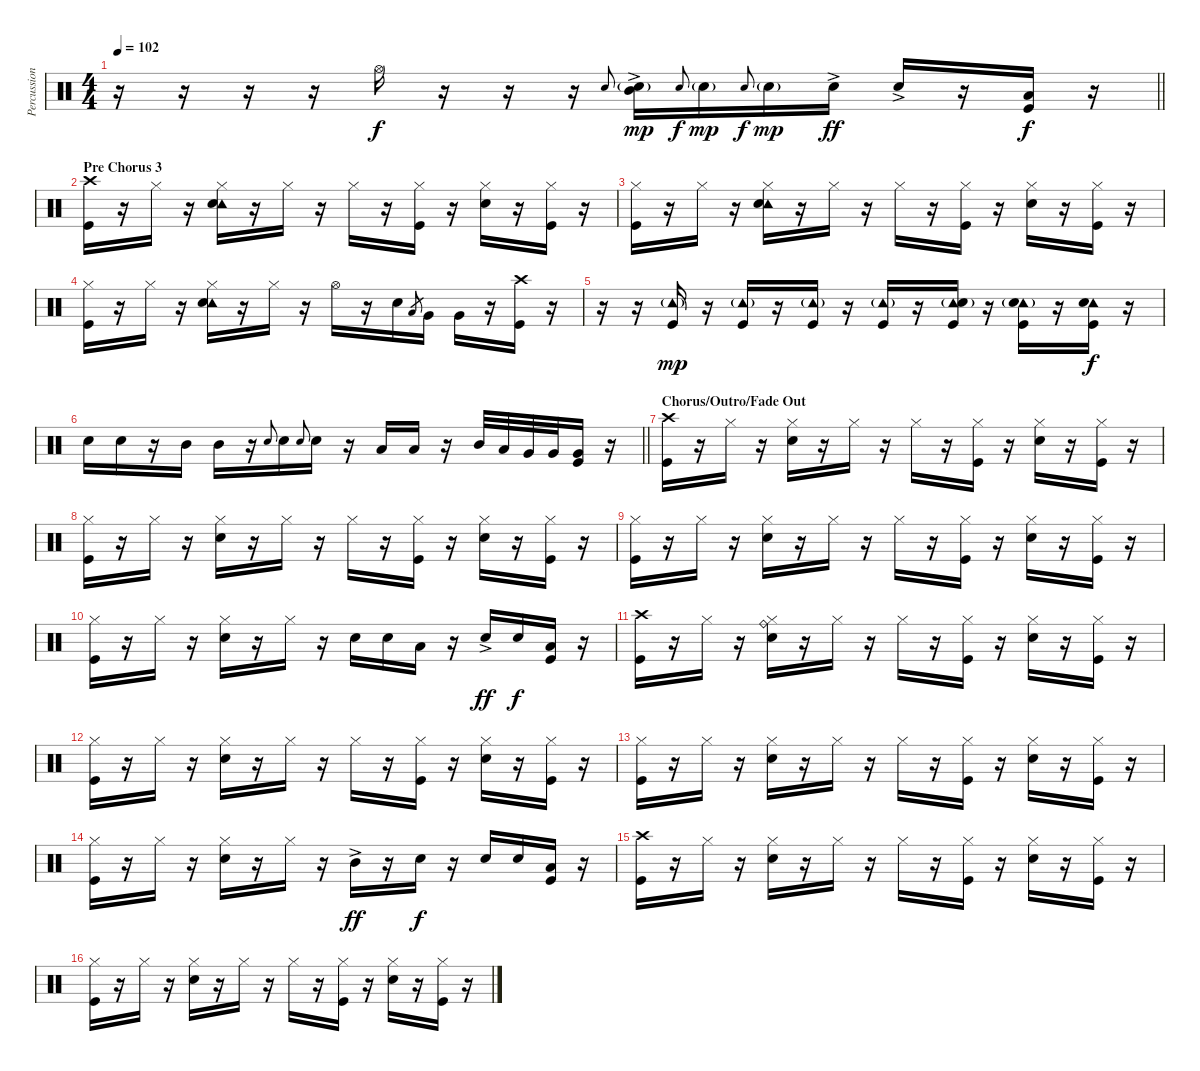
\track ("Percussion" "Percussion") {instrument percussion}
\staff {score}
\articulation defaults
\ts (4 4)
\tempo 102
\clef neutral
\barLineRight lightlight
\ks c
r.16{dy mp} r.16 r.16 r.16 "Hi-Hat (open)".16{dy f} r.16 r.16 r.16 "Snare (hit) 2".8{gr onbeat} ("Mid Tom (hit)"{ac} "Snare (hit) 2"{g}).16{dy mp} "Snare (hit) 2".8{gr onbeat dy f} "Snare (hit) 2"{g}.16{dy mp} "Snare (hit) 2".8{gr onbeat dy f} "Snare (hit) 2"{g}.16{dy mp} "Snare (hit) 2"{ac}.16{dy ff} "Snare (hit) 2"{ac}.16 r.16 ("Low Tom (hit)" "Kick (hit)").16{dy f} r.16 |
\section ("" "Pre Chorus 3")
("Crash high (hit)" "Kick (hit)").16 r.16 "Hi-Hat (closed)".16 r.16 ("Tambourine (hit)" "Hi-Hat (closed)" "Snare (hit) 2").16 r.16 "Hi-Hat (closed)".16 r.16 "Hi-Hat (closed)".16 r.16 ("Hi-Hat (closed)" "Kick (hit)").16 r.16 ("Hi-Hat (closed)" "Snare (hit) 2").16 r.16 ("Hi-Hat (closed)" "Kick (hit)").16 r.16 |
("Hi-Hat (closed)" "Kick (hit)").16 r.16 "Hi-Hat (closed)".16 r.16 ("Tambourine (hit)" "Hi-Hat (closed)" "Snare (hit) 2").16 r.16 "Hi-Hat (closed)".16 r.16 "Hi-Hat (closed)".16 r.16 ("Hi-Hat (closed)" "Kick (hit)").16 r.16 ("Hi-Hat (closed)" "Snare (hit) 2").16 r.16 ("Hi-Hat (closed)" "Kick (hit)").16 r.16 |
("Hi-Hat (closed)" "Kick (hit)").16 r.16 "Hi-Hat (closed)".16 r.16 ("Tambourine (hit)" "Hi-Hat (closed)" "Snare (hit) 2").16 r.16 "Hi-Hat (closed)".16 r.16 "Hi-Hat (open)".16 r.16 "Snare (hit) 2".16 "Low Tom (hit)".8{gr} "Very Low Tom (hit)".16 "Very Low Tom (hit)".16 r.16 ("Crash high (hit)" "Kick (hit)").16 r.16 |
r.16 r.16 ("Tambourine (hit)"{g} "Kick (hit)").16{dy mp} r.16 ("Tambourine (hit)"{g} "Kick (hit)").16 r.16 ("Tambourine (hit)"{g} "Kick (hit)").16 r.16 ("Tambourine (hit)"{g} "Kick (hit)").16 r.16 ("Tambourine (hit)" "Snare (hit) 2"{g} "Kick (hit)").16 r.16 ("Tambourine (hit)" "Snare (hit) 2"{g} "Kick (hit)").16 r.16 ("Tambourine (hit)" "Snare (hit) 2" "Kick (hit)").16{dy f} r.16 |
\barLineRight lightlight "Snare (hit) 2".16 "Snare (hit) 2".16
r.16 "Mid Tom (hit)".16 "Mid Tom (hit)".16 r.16 "Snare (hit) 2".8{gr onbeat} "Snare (hit) 2".16 "Snare (hit) 2".8{gr onbeat} "Snare (hit) 2".16 r.16 "Low Tom (hit)".16 "Low Tom (hit)".16 r.16 "Mid Tom (hit)".32 "Low Tom (hit)".32 "Very Low Tom (hit)".32 "Very Low Tom (hit)".32 ("Very Low Tom (hit)" "Kick (hit)").16 r.16 |
\section ("" "Chorus/Outro/Fade Out")
("Crash high (hit)" "Kick (hit)").16 r.16 "Hi-Hat (closed)".16 r.16 ("Hi-Hat (closed)" "Snare (hit) 2").16 r.16 "Hi-Hat (closed)".16 r.16 "Hi-Hat (closed)".16 r.16 ("Hi-Hat (closed)" "Kick (hit)").16 r.16 ("Hi-Hat (closed)" "Snare (hit) 2").16 r.16 ("Hi-Hat (closed)" "Kick (hit)").16 r.16 |
("Hi-Hat (closed)" "Kick (hit)").16 r.16 "Hi-Hat (closed)".16 r.16 ("Hi-Hat (closed)" "Snare (hit) 2").16 r.16 "Hi-Hat (closed)".16 r.16 "Hi-Hat (closed)".16 r.16 ("Hi-Hat (closed)" "Kick (hit)").16 r.16 ("Hi-Hat (closed)" "Snare (hit) 2").16 r.16 ("Hi-Hat (closed)" "Kick (hit)").16 r.16 |
("Hi-Hat (closed)" "Kick (hit)").16 r.16 "Hi-Hat (closed)".16 r.16 ("Hi-Hat (closed)" "Snare (hit) 2").16 r.16 "Hi-Hat (closed)".16 r.16 "Hi-Hat (closed)".16 r.16 ("Hi-Hat (closed)" "Kick (hit)").16 r.16 ("Hi-Hat (closed)" "Snare (hit) 2").16 r.16 ("Hi-Hat (closed)" "Kick (hit)").16 r.16 |
("Hi-Hat (closed)" "Kick (hit)").16 r.16 "Hi-Hat (closed)".16 r.16 ("Hi-Hat (closed)" "Snare (hit) 2").16 r.16 "Hi-Hat (closed)".16 r.16 "Snare (hit) 2".16 "Snare (hit) 2".16 "Low Tom (hit)".16 r.16 "Snare (hit) 2"{ac}.16{dy ff} "Snare (hit) 2".16{dy f} ("Low Tom (hit)" "Kick (hit)").16 r.16 |
("Crash high (hit)" "Kick (hit)").16 r.16 "Hi-Hat (closed)".16 r.16 ("Ride (bell)" "Hi-Hat (closed)" "Snare (hit) 2").16 r.16 "Hi-Hat (closed)".16 r.16 "Hi-Hat (closed)".16 r.16 ("Hi-Hat (closed)" "Kick (hit)").16 r.16 ("Hi-Hat (closed)" "Snare (hit) 2").16 r.16 ("Hi-Hat (closed)" "Kick (hit)").16 r.16 |
("Hi-Hat (closed)" "Kick (hit)").16 r.16 "Hi-Hat (closed)".16 r.16 ("Hi-Hat (closed)" "Snare (hit) 2").16 r.16 "Hi-Hat (closed)".16 r.16 "Hi-Hat (closed)".16 r.16 ("Hi-Hat (closed)" "Kick (hit)").16 r.16 ("Hi-Hat (closed)" "Snare (hit) 2").16 r.16 ("Hi-Hat (closed)" "Kick (hit)").16 r.16 |
("Hi-Hat (closed)" "Kick (hit)").16 r.16 "Hi-Hat (closed)".16 r.16 ("Hi-Hat (closed)" "Snare (hit) 2").16 r.16 "Hi-Hat (closed)".16 r.16 "Hi-Hat (closed)".16 r.16 ("Hi-Hat (closed)" "Kick (hit)").16 r.16 ("Hi-Hat (closed)" "Snare (hit) 2").16 r.16 ("Hi-Hat (closed)" "Kick (hit)").16 r.16 |
("Hi-Hat (closed)" "Kick (hit)").16 r.16 "Hi-Hat (closed)".16 r.16 ("Hi-Hat (closed)" "Snare (hit) 2").16 r.16 "Hi-Hat (closed)".16 r.16 "Mid Tom (hit)"{ac}.16{dy ff} r.16 "Snare (hit) 2".16{dy f} r.16 "Snare (hit) 2".16 "Snare (hit) 2".16 ("Low Tom (hit)" "Kick (hit)").16 r.16 |
("Crash high (hit)" "Kick (hit)").16 r.16 "Hi-Hat (closed)".16 r.16 ("Hi-Hat (closed)" "Snare (hit) 2").16 r.16 "Hi-Hat (closed)".16 r.16 "Hi-Hat (closed)".16 r.16 ("Hi-Hat (closed)" "Kick (hit)").16 r.16 ("Hi-Hat (closed)" "Snare (hit) 2").16 r.16 ("Hi-Hat (closed)" "Kick (hit)").16 r.16 |
("Hi-Hat (closed)" "Kick (hit)").16 r.16 "Hi-Hat (closed)".16 r.16 ("Hi-Hat (closed)" "Snare (hit) 2").16 r.16 "Hi-Hat (closed)".16 r.16 "Hi-Hat (closed)".16 r.16 ("Hi-Hat (closed)" "Kick (hit)").16 r.16 ("Hi-Hat (closed)" "Snare (hit) 2").16 r.16 ("Hi-Hat (closed)" "Kick (hit)").16 r.16
